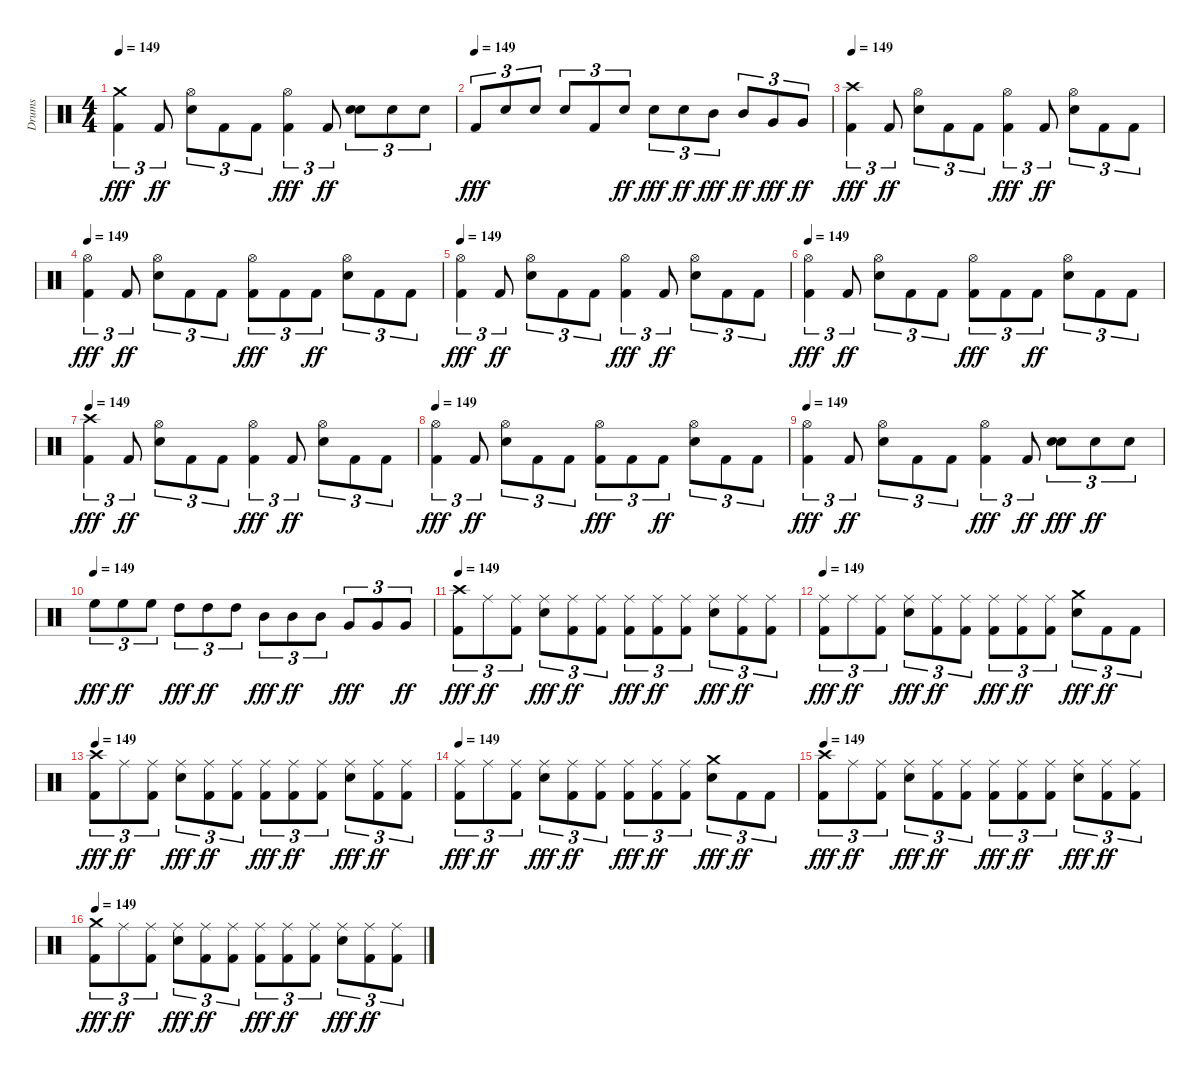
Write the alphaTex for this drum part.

\track ("Drums" "Drums") {instrument percussion}
\staff {score}
\articulation defaults
\ts (4 4)
\tempo 149
\clef neutral
\ks c
("Kick (hit) 2" "Crash medium (hit)").4{tu (3 2) dy fff} "Kick (hit) 2".8{tu (3 2) dy ff} ("Snare (hit) 2" "Hi-Hat (open)").8{tu (3 2)} "Kick (hit) 2".8{tu (3 2)} "Kick (hit) 2".8{tu (3 2)} ("Kick (hit) 2" "Hi-Hat (open)").4{tu (3 2) dy fff} "Kick (hit) 2".8{tu (3 2) dy ff} ("Snare (hit) 2" "Snare (hit) 2").8{tu (3 2)} "Snare (hit) 2".8{tu (3 2)} "Snare (hit) 2".8{tu (3 2)} |
\tempo (149)
"Kick (hit) 2".8{tu (3 2) dy fff} "Snare (hit) 2".8{tu (3 2)} "Snare (hit) 2".8{tu (3 2)} "Snare (hit) 2".8{tu (3 2)} "Kick (hit) 2".8{tu (3 2)} "Snare (hit) 2".8{tu (3 2) dy ff} "Snare (hit) 2".8{tu (3 2) dy fff} "Snare (hit) 2".8{tu (3 2) dy ff} "Mid Tom (hit)".8{tu (3 2) dy fff} "Mid Tom (hit)".8{tu (3 2) dy ff} "Very Low Tom (hit)".8{tu (3 2) dy fff} "Very Low Tom (hit)".8{tu (3 2) dy ff} |
\tempo 149
("Kick (hit) 2" "Crash high (hit)").4{tu (3 2) dy fff} "Kick (hit) 2".8{tu (3 2) dy ff} ("Snare (hit) 2" "Hi-Hat (open)").8{tu (3 2)} "Kick (hit) 2".8{tu (3 2)} "Kick (hit) 2".8{tu (3 2)} ("Kick (hit) 2" "Hi-Hat (open)").4{tu (3 2) dy fff} "Kick (hit) 2".8{tu (3 2) dy ff} ("Snare (hit) 2" "Hi-Hat (open)").8{tu (3 2)} "Kick (hit) 2".8{tu (3 2)} "Kick (hit) 2".8{tu (3 2)} |
\tempo 149
("Kick (hit) 2" "Hi-Hat (open)").4{tu (3 2) dy fff} "Kick (hit) 2".8{tu (3 2) dy ff} ("Snare (hit) 2" "Hi-Hat (open)").8{tu (3 2)} "Kick (hit) 2".8{tu (3 2)} "Kick (hit) 2".8{tu (3 2)} ("Kick (hit) 2" "Hi-Hat (open)").8{tu (3 2) dy fff} "Kick (hit) 2".8{tu (3 2)} "Kick (hit) 2".8{tu (3 2) dy ff} ("Snare (hit) 2" "Hi-Hat (open)").8{tu (3 2)} "Kick (hit) 2".8{tu (3 2)} "Kick (hit) 2".8{tu (3 2)} |
\tempo 149
("Kick (hit) 2" "Hi-Hat (open)").4{tu (3 2) dy fff} "Kick (hit) 2".8{tu (3 2) dy ff} ("Snare (hit) 2" "Hi-Hat (open)").8{tu (3 2)} "Kick (hit) 2".8{tu (3 2)} "Kick (hit) 2".8{tu (3 2)} ("Kick (hit) 2" "Hi-Hat (open)").4{tu (3 2) dy fff} "Kick (hit) 2".8{tu (3 2) dy ff} ("Snare (hit) 2" "Hi-Hat (open)").8{tu (3 2)} "Kick (hit) 2".8{tu (3 2)} "Kick (hit) 2".8{tu (3 2)} |
\tempo 149
("Kick (hit) 2" "Hi-Hat (open)").4{tu (3 2) dy fff} "Kick (hit) 2".8{tu (3 2) dy ff} ("Snare (hit) 2" "Hi-Hat (open)").8{tu (3 2)} "Kick (hit) 2".8{tu (3 2)} "Kick (hit) 2".8{tu (3 2)} ("Kick (hit) 2" "Hi-Hat (open)").8{tu (3 2) dy fff} "Kick (hit) 2".8{tu (3 2)} "Kick (hit) 2".8{tu (3 2) dy ff} ("Snare (hit) 2" "Hi-Hat (open)").8{tu (3 2)} "Kick (hit) 2".8{tu (3 2)} "Kick (hit) 2".8{tu (3 2)} |
\tempo 149
("Kick (hit) 2" "Crash high (hit)").4{tu (3 2) dy fff} "Kick (hit) 2".8{tu (3 2) dy ff} ("Snare (hit) 2" "Hi-Hat (open)").8{tu (3 2)} "Kick (hit) 2".8{tu (3 2)} "Kick (hit) 2".8{tu (3 2)} ("Kick (hit) 2" "Hi-Hat (open)").4{tu (3 2) dy fff} "Kick (hit) 2".8{tu (3 2) dy ff} ("Snare (hit) 2" "Hi-Hat (open)").8{tu (3 2)} "Kick (hit) 2".8{tu (3 2)} "Kick (hit) 2".8{tu (3 2)} |
\tempo 149
("Kick (hit) 2" "Hi-Hat (open)").4{tu (3 2) dy fff} "Kick (hit) 2".8{tu (3 2) dy ff} ("Snare (hit) 2" "Hi-Hat (open)").8{tu (3 2)} "Kick (hit) 2".8{tu (3 2)} "Kick (hit) 2".8{tu (3 2)} ("Kick (hit) 2" "Hi-Hat (open)").8{tu (3 2) dy fff} "Kick (hit) 2".8{tu (3 2)} "Kick (hit) 2".8{tu (3 2) dy ff} ("Snare (hit) 2" "Hi-Hat (open)").8{tu (3 2)} "Kick (hit) 2".8{tu (3 2)} "Kick (hit) 2".8{tu (3 2)} |
\tempo 149
("Kick (hit) 2" "Hi-Hat (open)").4{tu (3 2) dy fff} "Kick (hit) 2".8{tu (3 2) dy ff} ("Snare (hit) 2" "Hi-Hat (open)").8{tu (3 2)} "Kick (hit) 2".8{tu (3 2)} "Kick (hit) 2".8{tu (3 2)} ("Kick (hit) 2" "Hi-Hat (open)").4{tu (3 2) dy fff} "Kick (hit) 2".8{tu (3 2) dy ff} ("Snare (hit) 2" "Snare (hit) 2").8{tu (3 2) dy fff} "Snare (hit) 2".8{tu (3 2) dy ff} "Snare (hit) 2".8{tu (3 2)} |
\tempo (149)
"High Floor Tom (hit)".8{tu (3 2) dy fff} "High Floor Tom (hit)".8{tu (3 2) dy ff} "High Floor Tom (hit)".8{tu (3 2)} "High Tom (hit)".8{tu (3 2) dy fff} "High Tom (hit)".8{tu (3 2) dy ff} "High Tom (hit)".8{tu (3 2)} "Mid Tom (hit)".8{tu (3 2) dy fff} "Mid Tom (hit)".8{tu (3 2) dy ff} "Mid Tom (hit)".8{tu (3 2)} "Very Low Tom (hit)".8{tu (3 2) dy fff} "Very Low Tom (hit)".8{tu (3 2)} "Very Low Tom (hit)".8{tu (3 2) dy ff} |
\tempo 149
("Kick (hit) 2" "Crash high (hit)").8{tu (3 2) dy fff} "Ride (middle)".8{tu (3 2) dy ff} ("Kick (hit) 2" "Ride (middle)").8{tu (3 2)} ("Snare (hit) 2" "Ride (middle)").8{tu (3 2) dy fff} ("Kick (hit) 2" "Ride (middle)").8{tu (3 2) dy ff} ("Kick (hit) 2" "Ride (middle)").8{tu (3 2)} ("Kick (hit) 2" "Ride (middle)").8{tu (3 2) dy fff} ("Kick (hit) 2" "Ride (middle)").8{tu (3 2) dy ff} ("Kick (hit) 2" "Ride (middle)").8{tu (3 2)} ("Snare (hit) 2" "Ride (middle)").8{tu (3 2) dy fff} ("Kick (hit) 2" "Ride (middle)").8{tu (3 2) dy ff} ("Kick (hit) 2" "Ride (middle)").8{tu (3 2)} |
\tempo 149
("Kick (hit) 2" "Ride (middle)").8{tu (3 2) dy fff} "Ride (middle)".8{tu (3 2) dy ff} ("Kick (hit) 2" "Ride (middle)").8{tu (3 2)} ("Snare (hit) 2" "Ride (middle)").8{tu (3 2) dy fff} ("Kick (hit) 2" "Ride (middle)").8{tu (3 2) dy ff} ("Kick (hit) 2" "Ride (middle)").8{tu (3 2)} ("Kick (hit) 2" "Ride (middle)").8{tu (3 2) dy fff} ("Kick (hit) 2" "Ride (middle)").8{tu (3 2) dy ff} ("Kick (hit) 2" "Ride (middle)").8{tu (3 2)} ("Snare (hit) 2" "Crash medium (hit)").8{tu (3 2) dy fff} "Kick (hit) 2".8{tu (3 2) dy ff} "Kick (hit) 2".8{tu (3 2)} |
\tempo 149
("Kick (hit) 2" "Crash high (hit)").8{tu (3 2) dy fff} "Ride (middle)".8{tu (3 2) dy ff} ("Kick (hit) 2" "Ride (middle)").8{tu (3 2)} ("Snare (hit) 2" "Ride (middle)").8{tu (3 2) dy fff} ("Kick (hit) 2" "Ride (middle)").8{tu (3 2) dy ff} ("Kick (hit) 2" "Ride (middle)").8{tu (3 2)} ("Kick (hit) 2" "Ride (middle)").8{tu (3 2) dy fff} ("Kick (hit) 2" "Ride (middle)").8{tu (3 2) dy ff} ("Kick (hit) 2" "Ride (middle)").8{tu (3 2)} ("Snare (hit) 2" "Ride (middle)").8{tu (3 2) dy fff} ("Kick (hit) 2" "Ride (middle)").8{tu (3 2) dy ff} ("Kick (hit) 2" "Ride (middle)").8{tu (3 2)} |
\tempo 149
("Kick (hit) 2" "Ride (middle)").8{tu (3 2) dy fff} "Ride (middle)".8{tu (3 2) dy ff} ("Kick (hit) 2" "Ride (middle)").8{tu (3 2)} ("Snare (hit) 2" "Ride (middle)").8{tu (3 2) dy fff} ("Kick (hit) 2" "Ride (middle)").8{tu (3 2) dy ff} ("Kick (hit) 2" "Ride (middle)").8{tu (3 2)} ("Kick (hit) 2" "Ride (middle)").8{tu (3 2) dy fff} ("Kick (hit) 2" "Ride (middle)").8{tu (3 2) dy ff} ("Kick (hit) 2" "Ride (middle)").8{tu (3 2)} ("Snare (hit) 2" "Crash medium (hit)").8{tu (3 2) dy fff} "Kick (hit) 2".8{tu (3 2) dy ff} "Kick (hit) 2".8{tu (3 2)} |
\tempo 149
("Kick (hit) 2" "Crash high (hit)").8{tu (3 2) dy fff} "Ride (middle)".8{tu (3 2) dy ff} ("Kick (hit) 2" "Ride (middle)").8{tu (3 2)} ("Snare (hit) 2" "Ride (middle)").8{tu (3 2) dy fff} ("Kick (hit) 2" "Ride (middle)").8{tu (3 2) dy ff} ("Kick (hit) 2" "Ride (middle)").8{tu (3 2)} ("Kick (hit) 2" "Ride (middle)").8{tu (3 2) dy fff} ("Kick (hit) 2" "Ride (middle)").8{tu (3 2) dy ff} ("Kick (hit) 2" "Ride (middle)").8{tu (3 2)} ("Snare (hit) 2" "Ride (middle)").8{tu (3 2) dy fff} ("Kick (hit) 2" "Ride (middle)").8{tu (3 2) dy ff} ("Kick (hit) 2" "Ride (middle)").8{tu (3 2)} |
\tempo 149
("Kick (hit) 2" "Crash medium (hit)").8{tu (3 2) dy fff} "Ride (middle)".8{tu (3 2) dy ff} ("Kick (hit) 2" "Ride (middle)").8{tu (3 2)} ("Snare (hit) 2" "Ride (middle)").8{tu (3 2) dy fff} ("Kick (hit) 2" "Ride (middle)").8{tu (3 2) dy ff} ("Kick (hit) 2" "Ride (middle)").8{tu (3 2)} ("Kick (hit) 2" "Ride (middle)").8{tu (3 2) dy fff} ("Kick (hit) 2" "Ride (middle)").8{tu (3 2) dy ff} ("Kick (hit) 2" "Ride (middle)").8{tu (3 2)} ("Snare (hit) 2" "Ride (middle)").8{tu (3 2) dy fff} ("Kick (hit) 2" "Ride (middle)").8{tu (3 2) dy ff} ("Kick (hit) 2" "Ride (middle)").8{tu (3 2)}
